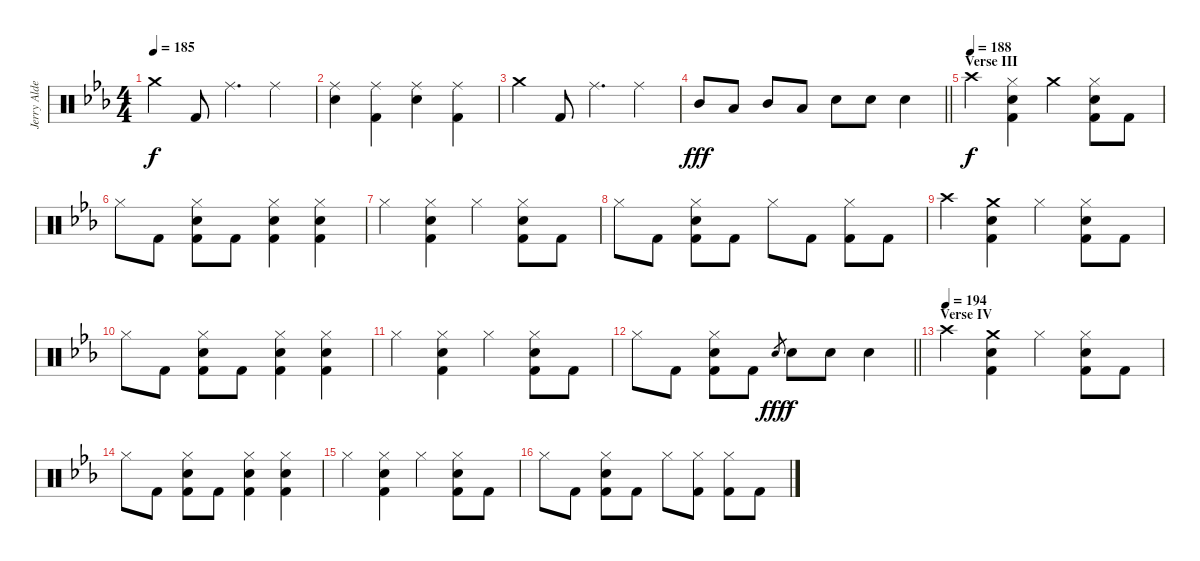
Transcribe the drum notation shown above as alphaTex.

\track ("Jerry Alder - Drums" "Jerry Alde") {instrument percussion}
\staff {score}
\articulation defaults
\ts (4 4)
\tempo 185
\clef neutral
\ks eb "Crash medium (hit)".4{dy f} "Kick (hit) 2".8 "Ride (middle)".4{d} "Ride (middle)".4
|
("Ride (middle)" "Snare (hit) 2").4 ("Ride (middle)" "Kick (hit) 2").4 ("Ride (middle)" "Snare (hit) 2").4 ("Ride (middle)" "Kick (hit) 2").4 |
"Crash medium (hit)".4 "Kick (hit) 2".8 "Ride (middle)".4{d} "Ride (middle)".4 |
\barLineRight lightlight "Mid Tom (hit)".8{dy fff} "Low Tom (hit)".8 "Mid Tom (hit)".8 "Low Tom (hit)".8 "Snare (hit) 2".8 "Snare (hit) 2".8 "Snare (hit) 2".4
|
\section ("" "Verse III")
\tempo (188)
"Crash high (hit)".4{dy f} ("Hi-Hat (closed)" "Snare (hit) 2" "Kick (hit) 2").4 "Crash medium (hit)".4 ("Hi-Hat (closed)" "Snare (hit) 2" "Kick (hit) 2").8 "Kick (hit) 2".8 |
"Hi-Hat (closed)".8 "Kick (hit) 2".8 ("Hi-Hat (closed)" "Snare (hit) 2" "Kick (hit) 2").8 "Kick (hit) 2".8 ("Hi-Hat (closed)" "Snare (hit) 2" "Kick (hit) 2").4 ("Hi-Hat (closed)" "Snare (hit) 2" "Kick (hit) 2").4 |
"Hi-Hat (closed)".4 ("Hi-Hat (closed)" "Snare (hit) 2" "Kick (hit) 2").4 "Hi-Hat (closed)".4 ("Hi-Hat (closed)" "Snare (hit) 2" "Kick (hit) 2").8 "Kick (hit) 2".8 |
"Hi-Hat (closed)".8 "Kick (hit) 2".8 ("Hi-Hat (closed)" "Snare (hit) 2" "Kick (hit) 2").8 "Kick (hit) 2".8 "Hi-Hat (closed)".8 "Kick (hit) 2".8 ("Hi-Hat (closed)" "Kick (hit) 2").8 "Kick (hit) 2".8 |
"Crash high (hit)".4 ("Crash medium (hit)" "Snare (hit) 2" "Kick (hit) 2").4 "Hi-Hat (closed)".4 ("Hi-Hat (closed)" "Snare (hit) 2" "Kick (hit) 2").8 "Kick (hit) 2".8 |
"Hi-Hat (closed)".8 "Kick (hit) 2".8 ("Hi-Hat (closed)" "Snare (hit) 2" "Kick (hit) 2").8 "Kick (hit) 2".8 ("Hi-Hat (closed)" "Snare (hit) 2" "Kick (hit) 2").4 ("Hi-Hat (closed)" "Snare (hit) 2" "Kick (hit) 2").4 |
"Hi-Hat (closed)".4 ("Hi-Hat (closed)" "Snare (hit) 2" "Kick (hit) 2").4 "Hi-Hat (closed)".4 ("Hi-Hat (closed)" "Snare (hit) 2" "Kick (hit) 2").8 "Kick (hit) 2".8 |
\barLineRight lightlight "Hi-Hat (closed)".8 "Kick (hit) 2".8
("Hi-Hat (closed)" "Snare (hit) 2" "Kick (hit) 2").8 "Kick (hit) 2".8 "Snare (hit) 2".8{gr dy fff} "Snare (hit) 2".8{dy f} "Snare (hit) 2".8 "Snare (hit) 2".4 |
\section ("" "Verse IV")
\tempo (194)
"Crash high (hit)".4 ("Crash medium (hit)" "Snare (hit) 2" "Kick (hit) 2").4 "Hi-Hat (closed)".4 ("Hi-Hat (closed)" "Snare (hit) 2" "Kick (hit) 2").8 "Kick (hit) 2".8 |
"Hi-Hat (closed)".8 "Kick (hit) 2".8 ("Hi-Hat (closed)" "Snare (hit) 2" "Kick (hit) 2").8 "Kick (hit) 2".8 ("Hi-Hat (closed)" "Snare (hit) 2" "Kick (hit) 2").4 ("Hi-Hat (closed)" "Snare (hit) 2" "Kick (hit) 2").4 |
"Hi-Hat (closed)".4 ("Hi-Hat (closed)" "Snare (hit) 2" "Kick (hit) 2").4 "Hi-Hat (closed)".4 ("Hi-Hat (closed)" "Snare (hit) 2" "Kick (hit) 2").8 "Kick (hit) 2".8 |
"Hi-Hat (closed)".8 "Kick (hit) 2".8 ("Hi-Hat (closed)" "Snare (hit) 2" "Kick (hit) 2").8 "Kick (hit) 2".8 "Hi-Hat (closed)".8 ("Hi-Hat (closed)" "Kick (hit) 2").8 ("Hi-Hat (closed)" "Kick (hit) 2").8 "Kick (hit) 2".8
